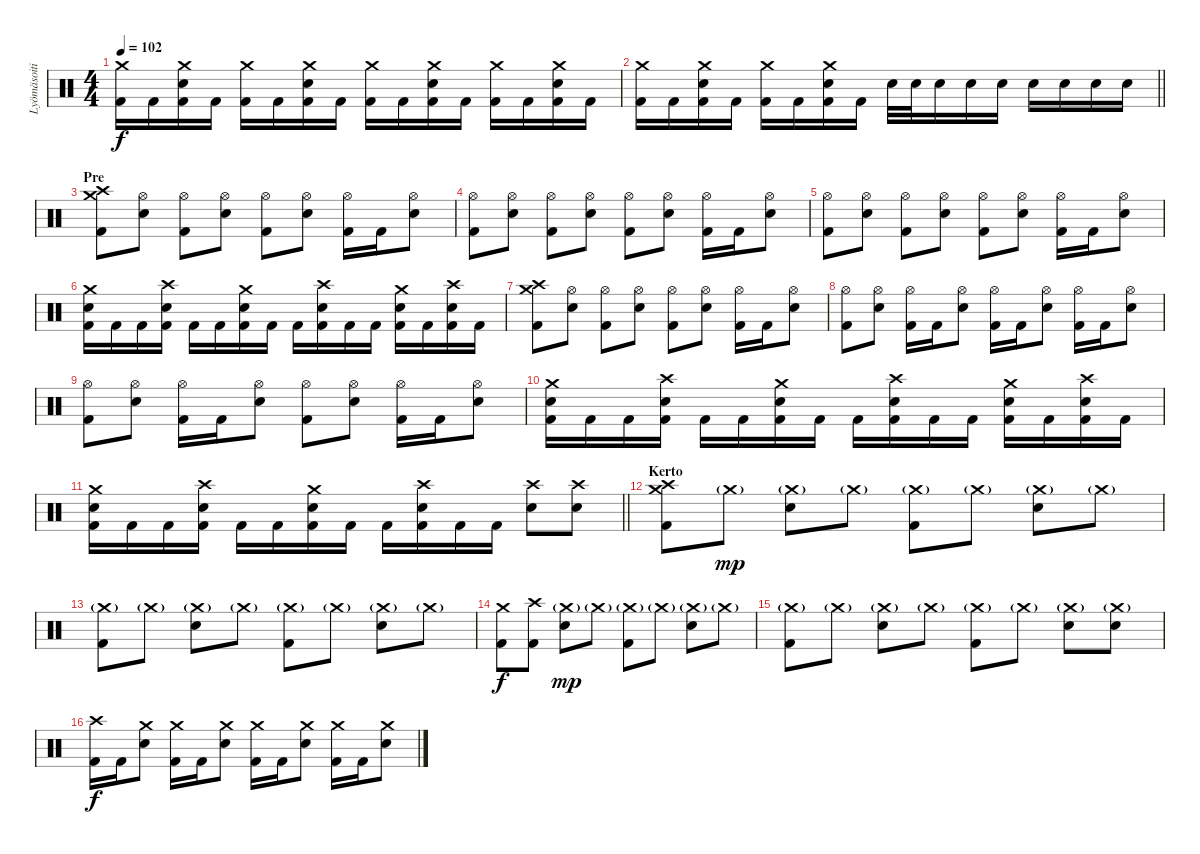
\track ("Lyömäsoitin" "Lyömäsoiti") {instrument percussion}
\staff {score}
\articulation defaults
\ts (4 4)
\tempo 102
\clef neutral
\ks c
("Crash medium (hit)" "Kick (hit) 2").16{dy f} "Kick (hit) 2".16 ("Crash medium (hit)" "Electric Snare (hit)" "Kick (hit) 2").16 "Kick (hit) 2".16 ("Crash medium (hit)" "Kick (hit) 2").16 "Kick (hit) 2".16 ("Crash medium (hit)" "Electric Snare (hit)" "Kick (hit) 2").16 "Kick (hit) 2".16 ("Crash medium (hit)" "Kick (hit) 2").16 "Kick (hit) 2".16 ("Crash medium (hit)" "Electric Snare (hit)" "Kick (hit) 2").16 "Kick (hit) 2".16 ("Crash medium (hit)" "Kick (hit) 2").16 "Kick (hit) 2".16 ("Crash medium (hit)" "Electric Snare (hit)" "Kick (hit) 2").16 "Kick (hit) 2".16 |
\barLineRight lightlight
("Crash medium (hit)" "Kick (hit) 2").16 "Kick (hit) 2".16 ("Crash medium (hit)" "Electric Snare (hit)" "Kick (hit) 2").16 "Kick (hit) 2".16 ("Crash medium (hit)" "Kick (hit) 2").16 "Kick (hit) 2".16 ("Crash medium (hit)" "Electric Snare (hit)" "Kick (hit) 2").16 "Kick (hit) 2".16 "Electric Snare (hit)".32 "Electric Snare (hit)".32 "Electric Snare (hit)".16 "Electric Snare (hit)".16 "Electric Snare (hit)".16 "Electric Snare (hit)".16 "Electric Snare (hit)".16 "Electric Snare (hit)".16 "Electric Snare (hit)".16 |
\section ("" "Pre")
("Crash medium (hit)" "Crash high (hit)" "Kick (hit) 2").8 ("Hi-Hat (open)" "Electric Snare (hit)").8 ("Hi-Hat (open)" "Kick (hit) 2").8 ("Hi-Hat (open)" "Electric Snare (hit)").8 ("Hi-Hat (open)" "Kick (hit) 2").8 ("Hi-Hat (open)" "Electric Snare (hit)").8 ("Hi-Hat (open)" "Kick (hit) 2").16 "Kick (hit) 2".16 ("Hi-Hat (open)" "Electric Snare (hit)").8 |
("Hi-Hat (open)" "Kick (hit) 2").8 ("Hi-Hat (open)" "Electric Snare (hit)").8 ("Hi-Hat (open)" "Kick (hit) 2").8 ("Hi-Hat (open)" "Electric Snare (hit)").8 ("Hi-Hat (open)" "Kick (hit) 2").8 ("Hi-Hat (open)" "Electric Snare (hit)").8 ("Hi-Hat (open)" "Kick (hit) 2").16 "Kick (hit) 2".16 ("Hi-Hat (open)" "Electric Snare (hit)").8 |
("Hi-Hat (open)" "Kick (hit) 2").8 ("Hi-Hat (open)" "Electric Snare (hit)").8 ("Hi-Hat (open)" "Kick (hit) 2").8 ("Hi-Hat (open)" "Electric Snare (hit)").8 ("Hi-Hat (open)" "Kick (hit) 2").8 ("Hi-Hat (open)" "Electric Snare (hit)").8 ("Hi-Hat (open)" "Kick (hit) 2").16 "Kick (hit) 2".16 ("Hi-Hat (open)" "Electric Snare (hit)").8 |
("Crash medium (hit)" "Electric Snare (hit)" "Kick (hit) 2").16 "Kick (hit) 2".16 "Kick (hit) 2".16 ("Crash high (hit)" "Electric Snare (hit)" "Kick (hit) 2").16 "Kick (hit) 2".16 "Kick (hit) 2".16 ("Crash medium (hit)" "Electric Snare (hit)" "Kick (hit) 2").16 "Kick (hit) 2".16 "Kick (hit) 2".16 ("Crash high (hit)" "Electric Snare (hit)" "Kick (hit) 2").16 "Kick (hit) 2".16 "Kick (hit) 2".16 ("Crash medium (hit)" "Electric Snare (hit)" "Kick (hit) 2").16 "Kick (hit) 2".16 ("Crash high (hit)" "Electric Snare (hit)" "Kick (hit) 2").16 "Kick (hit) 2".16 |
("Crash medium (hit)" "Crash high (hit)" "Kick (hit) 2").8 ("Hi-Hat (open)" "Electric Snare (hit)").8 ("Hi-Hat (open)" "Kick (hit) 2").8 ("Hi-Hat (open)" "Electric Snare (hit)").8 ("Hi-Hat (open)" "Kick (hit) 2").8 ("Hi-Hat (open)" "Electric Snare (hit)").8 ("Hi-Hat (open)" "Kick (hit) 2").16 "Kick (hit) 2".16 ("Hi-Hat (open)" "Electric Snare (hit)").8 |
("Hi-Hat (open)" "Kick (hit) 2").8 ("Hi-Hat (open)" "Electric Snare (hit)").8 ("Hi-Hat (open)" "Kick (hit) 2").16 "Kick (hit) 2".16 ("Hi-Hat (open)" "Electric Snare (hit)").8 ("Hi-Hat (open)" "Kick (hit) 2").16 "Kick (hit) 2".16 ("Hi-Hat (open)" "Electric Snare (hit)").8 ("Hi-Hat (open)" "Kick (hit) 2").16 "Kick (hit) 2".16 ("Hi-Hat (open)" "Electric Snare (hit)").8 |
("Hi-Hat (open)" "Kick (hit) 2").8 ("Hi-Hat (open)" "Electric Snare (hit)").8 ("Hi-Hat (open)" "Kick (hit) 2").16 "Kick (hit) 2".16 ("Hi-Hat (open)" "Electric Snare (hit)").8 ("Hi-Hat (open)" "Kick (hit) 2").8 ("Hi-Hat (open)" "Electric Snare (hit)").8 ("Hi-Hat (open)" "Kick (hit) 2").16 "Kick (hit) 2".16 ("Hi-Hat (open)" "Electric Snare (hit)").8 |
("Crash medium (hit)" "Electric Snare (hit)" "Kick (hit) 2").16 "Kick (hit) 2".16 "Kick (hit) 2".16 ("Crash high (hit)" "Electric Snare (hit)" "Kick (hit) 2").16 "Kick (hit) 2".16 "Kick (hit) 2".16 ("Crash medium (hit)" "Electric Snare (hit)" "Kick (hit) 2").16 "Kick (hit) 2".16 "Kick (hit) 2".16 ("Crash high (hit)" "Electric Snare (hit)" "Kick (hit) 2").16 "Kick (hit) 2".16 "Kick (hit) 2".16 ("Crash medium (hit)" "Electric Snare (hit)" "Kick (hit) 2").16 "Kick (hit) 2".16 ("Crash high (hit)" "Electric Snare (hit)" "Kick (hit) 2").16 "Kick (hit) 2".16 |
\barLineRight lightlight
("Crash medium (hit)" "Electric Snare (hit)" "Kick (hit) 2").16 "Kick (hit) 2".16 "Kick (hit) 2".16 ("Crash high (hit)" "Electric Snare (hit)" "Kick (hit) 2").16 "Kick (hit) 2".16 "Kick (hit) 2".16 ("Crash medium (hit)" "Electric Snare (hit)" "Kick (hit) 2").16 "Kick (hit) 2".16 "Kick (hit) 2".16 ("Crash high (hit)" "Electric Snare (hit)" "Kick (hit) 2").16 "Kick (hit) 2".16 "Kick (hit) 2".16 ("Crash high (hit)" "Electric Snare (hit)").8 ("Crash high (hit)" "Electric Snare (hit)").8 |
\section ("" "Kerto")
("Crash medium (hit)" "Crash high (hit)" "Kick (hit) 2").8 "Crash medium (hit)"{g}.8{dy mp} ("Crash medium (hit)"{g} "Electric Snare (hit)").8 "Crash medium (hit)"{g}.8 ("Crash medium (hit)"{g} "Kick (hit) 2").8 "Crash medium (hit)"{g}.8 ("Crash medium (hit)"{g} "Electric Snare (hit)").8 "Crash medium (hit)"{g}.8 |
("Crash medium (hit)"{g} "Kick (hit) 2").8 "Crash medium (hit)"{g}.8 ("Crash medium (hit)"{g} "Electric Snare (hit)").8 "Crash medium (hit)"{g}.8 ("Crash medium (hit)"{g} "Kick (hit) 2").8 "Crash medium (hit)"{g}.8 ("Crash medium (hit)"{g} "Electric Snare (hit)").8 "Crash medium (hit)"{g}.8 |
("Crash medium (hit)" "Kick (hit) 2").8{dy f} ("Crash high (hit)" "Kick (hit) 2").8 ("Crash medium (hit)"{g} "Electric Snare (hit)").8{dy mp} "Crash medium (hit)"{g}.8 ("Crash medium (hit)"{g} "Kick (hit) 2").8 "Crash medium (hit)"{g}.8 ("Crash medium (hit)"{g} "Electric Snare (hit)").8 "Crash medium (hit)"{g}.8 |
("Crash medium (hit)"{g} "Kick (hit) 2").8 "Crash medium (hit)"{g}.8 ("Crash medium (hit)"{g} "Electric Snare (hit)").8 "Crash medium (hit)"{g}.8 ("Crash medium (hit)"{g} "Kick (hit) 2").8 "Crash medium (hit)"{g}.8 ("Crash medium (hit)"{g} "Electric Snare (hit)").8 ("Crash medium (hit)"{g} "Electric Snare (hit)").8 |
("Crash high (hit)" "Kick (hit) 2").16{dy f} "Kick (hit) 2".16 ("Crash medium (hit)" "Electric Snare (hit)").8 ("Crash medium (hit)" "Kick (hit) 2").16 "Kick (hit) 2".16 ("Crash medium (hit)" "Electric Snare (hit)").8 ("Crash medium (hit)" "Kick (hit) 2").16 "Kick (hit) 2".16 ("Crash medium (hit)" "Electric Snare (hit)").8 ("Crash medium (hit)" "Kick (hit) 2").16 "Kick (hit) 2".16 ("Crash medium (hit)" "Electric Snare (hit)").8
